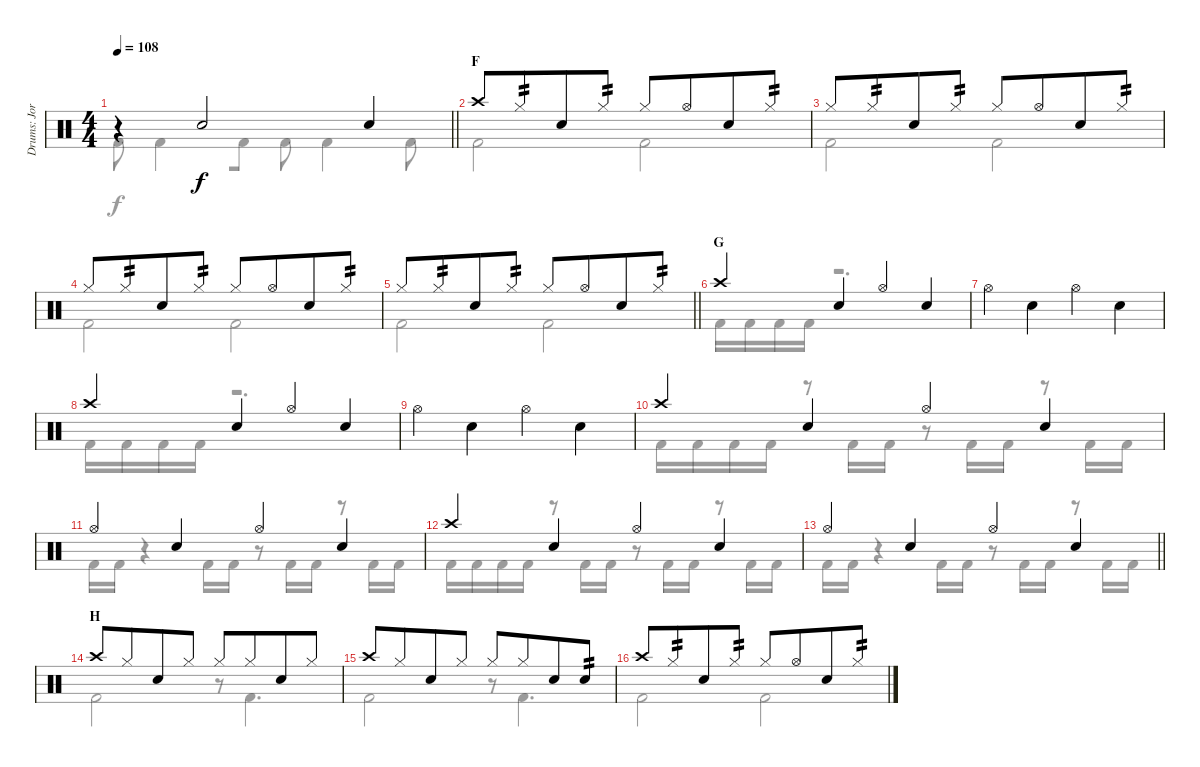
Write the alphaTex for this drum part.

\track ("Drums: Jorg" "Drums: Jor") {instrument percussion}
\staff {score}
\articulation defaults
\voice
\ts (4 4)
\tempo 108
\clef neutral
\barLineRight lightlight
\ks c
r.4{dy f beam merge} "Snare (hit) 2".2{beam merge} "Snare (hit) 2".4 |
\section ("" "F")
"Crash high (hit)".8 "Hi-Hat (closed)".8{tp 2 beam merge} "Snare (hit) 2".8 "Hi-Hat (closed)".8{tp 2} "Hi-Hat (closed)".8 "Hi-Hat (open)".8{beam merge} "Snare (hit) 2".8 "Hi-Hat (closed)".8{tp 2} |
"Hi-Hat (closed)".8 "Hi-Hat (closed)".8{tp 2 beam merge} "Snare (hit) 2".8 "Hi-Hat (closed)".8{tp 2} "Hi-Hat (closed)".8 "Hi-Hat (open)".8{beam merge} "Snare (hit) 2".8 "Hi-Hat (closed)".8{tp 2} |
"Hi-Hat (closed)".8 "Hi-Hat (closed)".8{tp 2 beam merge} "Snare (hit) 2".8 "Hi-Hat (closed)".8{tp 2} "Hi-Hat (closed)".8 "Hi-Hat (open)".8{beam merge} "Snare (hit) 2".8 "Hi-Hat (closed)".8{tp 2} |
\barLineRight lightlight "Hi-Hat (closed)".8 "Hi-Hat (closed)".8{tp 2 beam merge} "Snare (hit) 2".8 "Hi-Hat (closed)".8{tp 2} "Hi-Hat (closed)".8 "Hi-Hat (open)".8{beam merge} "Snare (hit) 2".8 "Hi-Hat (closed)".8{tp 2}
|
\section ("" "G")
"Crash high (hit)".4 "Snare (hit) 2".4 "Hi-Hat (open)".4 "Snare (hit) 2".4 |
"Hi-Hat (open)".4 "Snare (hit) 2".4 "Hi-Hat (open)".4 "Snare (hit) 2".4 |
"Crash high (hit)".4 "Snare (hit) 2".4 "Hi-Hat (open)".4 "Snare (hit) 2".4 |
"Hi-Hat (open)".4 "Snare (hit) 2".4 "Hi-Hat (open)".4 "Snare (hit) 2".4 |
"Crash high (hit)".4 "Snare (hit) 2".4 "Hi-Hat (open)".4 "Snare (hit) 2".4 |
"Hi-Hat (open)".4 "Snare (hit) 2".4 "Hi-Hat (open)".4 "Snare (hit) 2".4 |
"Crash high (hit)".4 "Snare (hit) 2".4 "Hi-Hat (open)".4 "Snare (hit) 2".4 |
\barLineRight lightlight "Hi-Hat (open)".4 "Snare (hit) 2".4 "Hi-Hat (open)".4 "Snare (hit) 2".4
|
\section ("" "H")
"Crash high (hit)".8 "Hi-Hat (closed)".8{beam merge} "Snare (hit) 2".8 "Hi-Hat (closed)".8 "Hi-Hat (closed)".8 "Hi-Hat (closed)".8{beam merge} "Snare (hit) 2".8 "Hi-Hat (closed)".8 |
"Crash high (hit)".8 "Hi-Hat (closed)".8{beam merge} "Snare (hit) 2".8 "Hi-Hat (closed)".8 "Hi-Hat (closed)".8 "Hi-Hat (closed)".8{beam merge} "Snare (hit) 2".8 "Electric Snare (hit)".8{tp 2} |
"Crash high (hit)".8 "Hi-Hat (closed)".8{tp 2 beam merge} "Snare (hit) 2".8 "Hi-Hat (closed)".8{tp 2} "Hi-Hat (closed)".8 "Hi-Hat (open)".8{beam merge} "Snare (hit) 2".8 "Hi-Hat (closed)".8{tp 2}
\voice
\clef neutral
\ottava regular
\simile none
\barLineRight lightlight
\ks c "Kick (hit) 2".8{dy f} "Kick (hit) 2".4{beam merge} "Kick (hit) 2".8 "Kick (hit) 2".8 "Kick (hit) 2".4 "Kick (hit) 2".8
|
"Kick (hit) 2".2 "Kick (hit) 2".2 |
"Kick (hit) 2".2 "Kick (hit) 2".2 |
"Kick (hit) 2".2 "Kick (hit) 2".2 |
\barLineRight lightlight "Kick (hit) 2".2 "Kick (hit) 2".2
|
"Kick (hit) 2".16 "Kick (hit) 2".16 "Kick (hit) 2".16 "Kick (hit) 2".16 r.2{d} |
|
"Kick (hit) 2".16 "Kick (hit) 2".16 "Kick (hit) 2".16 "Kick (hit) 2".16 r.2{d} |
|
"Kick (hit) 2".16 "Kick (hit) 2".16 "Kick (hit) 2".16 "Kick (hit) 2".16 r.8 "Kick (hit) 2".16 "Kick (hit) 2".16 r.8 "Kick (hit) 2".16 "Kick (hit) 2".16 r.8 "Kick (hit) 2".16 "Kick (hit) 2".16 |
"Kick (hit) 2".16 "Kick (hit) 2".16 r.4 "Kick (hit) 2".16 "Kick (hit) 2".16 r.8 "Kick (hit) 2".16 "Kick (hit) 2".16 r.8 "Kick (hit) 2".16 "Kick (hit) 2".16 |
"Kick (hit) 2".16 "Kick (hit) 2".16 "Kick (hit) 2".16 "Kick (hit) 2".16 r.8 "Kick (hit) 2".16 "Kick (hit) 2".16 r.8 "Kick (hit) 2".16 "Kick (hit) 2".16 r.8 "Kick (hit) 2".16 "Kick (hit) 2".16 |
\barLineRight lightlight "Kick (hit) 2".16 "Kick (hit) 2".16
r.4 "Kick (hit) 2".16 "Kick (hit) 2".16 r.8 "Kick (hit) 2".16 "Kick (hit) 2".16 r.8 "Kick (hit) 2".16 "Kick (hit) 2".16 |
"Kick (hit) 2".2 r.8 "Kick (hit) 2".4{d} |
"Kick (hit) 2".2 r.8 "Kick (hit) 2".4{d} |
"Kick (hit) 2".2 "Kick (hit) 2".2
